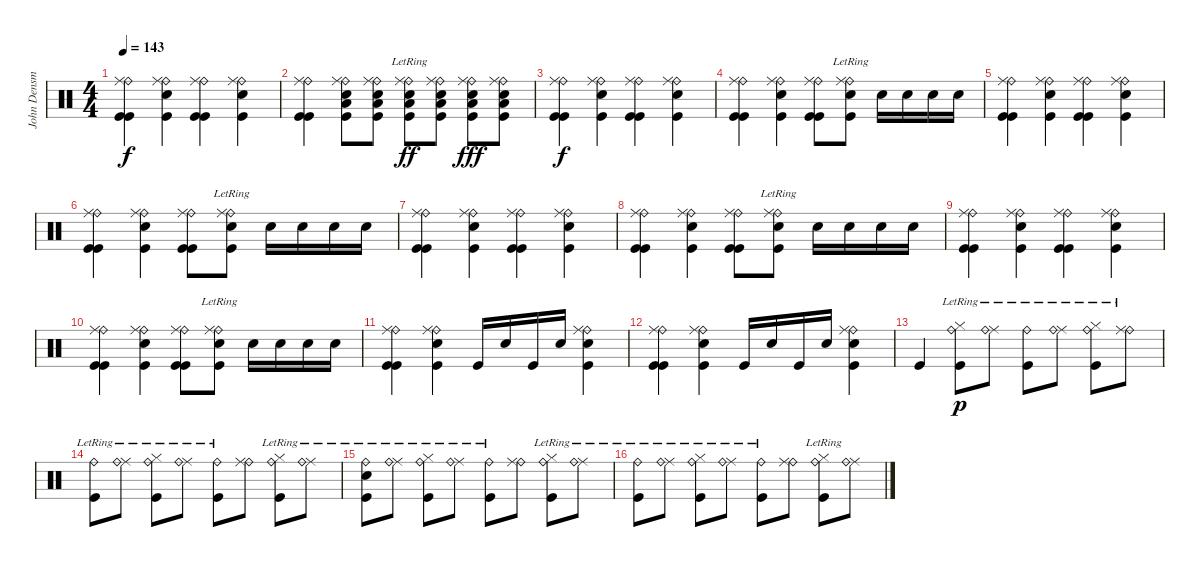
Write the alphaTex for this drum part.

\track ("John Densmore" "John Densm") {instrument percussion}
\staff {score}
\articulation defaults
\ts (4 4)
\tempo 143
\clef neutral
\ks c
("Ride (bell)" "Ride (middle)" "Kick (hit)" "Kick (hit)").4{dy f} ("Ride (bell)" "Ride (middle)" "Kick (hit)" "Snare (hit) 2").4 ("Ride (bell)" "Ride (middle)" "Kick (hit)" "Kick (hit)").4 ("Ride (bell)" "Ride (middle)" "Kick (hit)" "Snare (hit) 2").4 |
("Ride (bell)" "Ride (middle)" "Kick (hit)" "Kick (hit)").4 ("Ride (bell)" "Ride (middle)" "Kick (hit)" "Low Tom (hit)" "Snare (hit) 2").8 ("Ride (bell)" "Ride (middle)" "Kick (hit)" "Low Tom (hit)" "Snare (hit) 2").8 ("Ride (bell)"{lr} "Ride (middle)"{lr} "Kick (hit)" "Low Tom (hit)" "Snare (hit) 2").8{dy ff} ("Ride (bell)" "Ride (middle)" "Kick (hit)" "Low Tom (hit)" "Snare (hit) 2").8 ("Ride (bell)" "Ride (middle)" "Kick (hit)" "Low Tom (hit)" "Snare (hit) 2").8{dy fff} ("Ride (bell)" "Ride (middle)" "Kick (hit)" "Low Tom (hit)" "Snare (hit) 2").8 |
("Ride (bell)" "Ride (middle)" "Kick (hit)" "Kick (hit)").4{dy f} ("Ride (bell)" "Ride (middle)" "Kick (hit)" "Snare (hit) 2").4 ("Ride (bell)" "Ride (middle)" "Kick (hit)" "Kick (hit)").4 ("Ride (bell)" "Ride (middle)" "Kick (hit)" "Snare (hit) 2").4 |
("Ride (bell)" "Ride (middle)" "Kick (hit)" "Kick (hit)").4 ("Ride (bell)" "Ride (middle)" "Kick (hit)" "Snare (hit) 2").4 ("Ride (bell)" "Ride (middle)" "Kick (hit)" "Kick (hit)").8 ("Ride (bell)"{lr} "Ride (middle)"{lr} "Kick (hit)" "Snare (hit) 2").8 "Snare (hit) 2".16 "Snare (hit) 2".16 "Snare (hit) 2".16 "Snare (hit) 2".16 |
("Ride (bell)" "Ride (middle)" "Kick (hit)" "Kick (hit)").4 ("Ride (bell)" "Ride (middle)" "Kick (hit)" "Snare (hit) 2").4 ("Ride (bell)" "Ride (middle)" "Kick (hit)" "Kick (hit)").4 ("Ride (bell)" "Ride (middle)" "Kick (hit)" "Snare (hit) 2").4 |
("Ride (bell)" "Ride (middle)" "Kick (hit)" "Kick (hit)").4 ("Ride (bell)" "Ride (middle)" "Kick (hit)" "Snare (hit) 2").4 ("Ride (bell)" "Ride (middle)" "Kick (hit)" "Kick (hit)").8 ("Ride (bell)"{lr} "Ride (middle)"{lr} "Kick (hit)" "Snare (hit) 2").8 "Snare (hit) 2".16 "Snare (hit) 2".16 "Snare (hit) 2".16 "Snare (hit) 2".16 |
("Ride (bell)" "Ride (middle)" "Kick (hit)" "Kick (hit)").4 ("Ride (bell)" "Ride (middle)" "Kick (hit)" "Snare (hit) 2").4 ("Ride (bell)" "Ride (middle)" "Kick (hit)" "Kick (hit)").4 ("Ride (bell)" "Ride (middle)" "Kick (hit)" "Snare (hit) 2").4 |
("Ride (bell)" "Ride (middle)" "Kick (hit)" "Kick (hit)").4 ("Ride (bell)" "Ride (middle)" "Kick (hit)" "Snare (hit) 2").4 ("Ride (bell)" "Ride (middle)" "Kick (hit)" "Kick (hit)").8 ("Ride (bell)"{lr} "Ride (middle)"{lr} "Kick (hit)" "Snare (hit) 2").8 "Snare (hit) 2".16 "Snare (hit) 2".16 "Snare (hit) 2".16 "Snare (hit) 2".16 |
("Ride (bell)" "Ride (middle)" "Kick (hit)" "Kick (hit)").4 ("Ride (bell)" "Ride (middle)" "Kick (hit)" "Snare (hit) 2").4 ("Ride (bell)" "Ride (middle)" "Kick (hit)" "Kick (hit)").4 ("Ride (bell)" "Ride (middle)" "Kick (hit)" "Snare (hit) 2").4 |
("Ride (bell)" "Ride (middle)" "Kick (hit)" "Kick (hit)").4 ("Ride (bell)" "Ride (middle)" "Kick (hit)" "Snare (hit) 2").4 ("Ride (bell)" "Ride (middle)" "Kick (hit)" "Kick (hit)").8 ("Ride (bell)"{lr} "Ride (middle)"{lr} "Kick (hit)" "Snare (hit) 2").8 "Snare (hit) 2".16 "Snare (hit) 2".16 "Snare (hit) 2".16 "Snare (hit) 2".16 |
("Ride (bell)" "Ride (middle)" "Kick (hit)" "Kick (hit)").4 ("Ride (bell)" "Ride (middle)" "Kick (hit)" "Snare (hit) 2").4 "Kick (hit)".16 "Snare (hit) 2".16 "Kick (hit)".16 "Snare (hit) 2".16 ("Ride (bell)" "Ride (middle)" "Kick (hit)" "Snare (hit) 2").4 |
("Ride (bell)" "Ride (middle)" "Kick (hit)" "Kick (hit)").4 ("Ride (bell)" "Ride (middle)" "Kick (hit)" "Snare (hit) 2").4 "Kick (hit)".16 "Snare (hit) 2".16 "Kick (hit)".16 "Snare (hit) 2".16 ("Ride (bell)" "Ride (middle)" "Kick (hit)" "Snare (hit) 2").4 |
"Kick (hit)".4 ("Hi-Hat (closed)" "Ride (bell)"{lr} "Kick (hit)").8{dy p} ("Ride (middle)"{lr} "Ride (bell)"{lr}).8 ("Ride (bell)"{lr} "Kick (hit)").8 ("Ride (middle)"{lr} "Ride (bell)"{lr}).8 ("Ride (bell)"{lr} "Hi-Hat (closed)" "Kick (hit)").8 ("Ride (bell)"{lr} "Ride (middle)"{lr}).8 |
("Ride (bell)"{lr} "Kick (hit)").8 ("Ride (middle)"{lr} "Ride (bell)"{lr}).8 ("Hi-Hat (closed)" "Ride (bell)"{lr} "Kick (hit)").8 ("Ride (middle)"{lr} "Ride (bell)"{lr}).8 ("Ride (bell)"{lr} "Kick (hit)").8 ("Ride (bell)" "Ride (middle)").8 ("Hi-Hat (closed)" "Ride (bell)"{lr} "Kick (hit)").8 ("Ride (middle)"{lr} "Ride (bell)"{lr}).8 |
("Electric Snare (hit)" "Ride (bell)"{lr} "Kick (hit)").8 ("Ride (middle)"{lr} "Ride (bell)"{lr}).8 ("Hi-Hat (closed)" "Ride (bell)"{lr} "Kick (hit)").8 ("Ride (middle)"{lr} "Ride (bell)"{lr}).8 ("Ride (bell)"{lr} "Kick (hit)").8 ("Ride (bell)" "Ride (middle)").8 ("Hi-Hat (closed)" "Ride (bell)"{lr} "Kick (hit)").8 ("Ride (middle)"{lr} "Ride (bell)"{lr}).8 |
("Ride (bell)"{lr} "Kick (hit)").8 ("Ride (middle)"{lr} "Ride (bell)"{lr}).8 ("Hi-Hat (closed)" "Ride (bell)"{lr} "Kick (hit)").8 ("Ride (middle)"{lr} "Ride (bell)"{lr}).8 ("Ride (bell)"{lr} "Kick (hit)").8 ("Ride (bell)" "Ride (middle)").8 ("Hi-Hat (closed)" "Ride (bell)"{lr} "Kick (hit)").8 ("Ride (middle)"{lr} "Ride (bell)"{lr}).8
